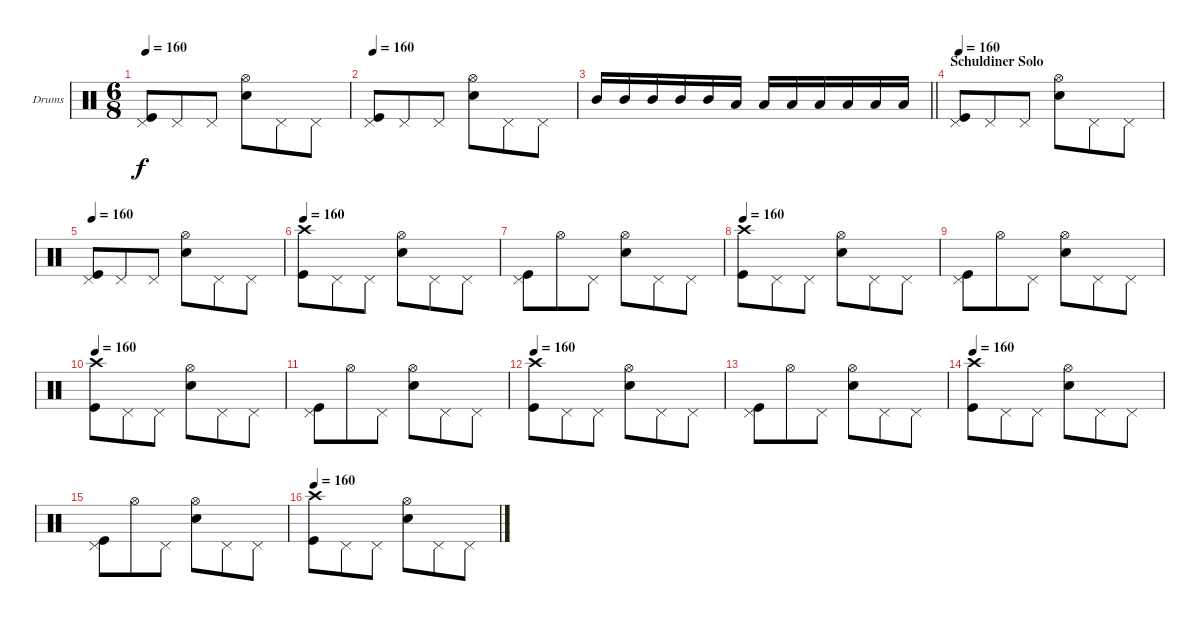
\bracketExtendMode groupsimilarinstruments
\firstSystemTrackNameOrientation horizontal
\otherSystemsTrackNameOrientation horizontal
\track ("Drumkit" "Drums") {instrument percussion}
\staff {score}
\articulation defaults
\ts (6 8)
\tempo 160
\clef neutral
\ks c
("Pedal Hi-Hat (hit)" "Kick (hit)").8{dy f} "Pedal Hi-Hat (hit)".8 "Pedal Hi-Hat (hit)".8 ("Hi-Hat (open)" "Snare (hit) 2").8 "Pedal Hi-Hat (hit)".8 "Pedal Hi-Hat (hit)".8 |
\tempo 160
("Pedal Hi-Hat (hit)" "Kick (hit)").8 "Pedal Hi-Hat (hit)".8 "Pedal Hi-Hat (hit)".8 ("Hi-Hat (open)" "Snare (hit) 2").8 "Pedal Hi-Hat (hit)".8 "Pedal Hi-Hat (hit)".8 |
\barLineRight lightlight "Mid Tom (hit)".16 "Mid Tom (hit)".16 "Mid Tom (hit)".16 "Mid Tom (hit)".16 "Mid Tom (hit)".16 "Low Tom (hit)".16 "Low Tom (hit)".16 "Low Tom (hit)".16 "Low Tom (hit)".16 "Low Tom (hit)".16 "Low Tom (hit)".16 "Low Tom (hit)".16
|
\section ("" "Schuldiner Solo")
\tempo 160
("Pedal Hi-Hat (hit)" "Kick (hit)").8 "Pedal Hi-Hat (hit)".8 "Pedal Hi-Hat (hit)".8 ("Hi-Hat (open)" "Snare (hit) 2").8 "Pedal Hi-Hat (hit)".8 "Pedal Hi-Hat (hit)".8 |
\tempo 160
("Pedal Hi-Hat (hit)" "Kick (hit)").8 "Pedal Hi-Hat (hit)".8 "Pedal Hi-Hat (hit)".8 ("Hi-Hat (open)" "Snare (hit) 2").8 "Pedal Hi-Hat (hit)".8 "Pedal Hi-Hat (hit)".8 |
\tempo 160
("Crash high (hit)" "Kick (hit)").8 "Pedal Hi-Hat (hit)".8 "Pedal Hi-Hat (hit)".8 ("Hi-Hat (open)" "Snare (hit) 2").8 "Pedal Hi-Hat (hit)".8 "Pedal Hi-Hat (hit)".8 |
("Pedal Hi-Hat (hit)" "Kick (hit)").8 "Hi-Hat (open)".8 "Pedal Hi-Hat (hit)".8 ("Hi-Hat (open)" "Snare (hit) 2").8 "Pedal Hi-Hat (hit)".8 "Pedal Hi-Hat (hit)".8 |
\tempo 160
("Crash high (hit)" "Kick (hit)").8 "Pedal Hi-Hat (hit)".8 "Pedal Hi-Hat (hit)".8 ("Hi-Hat (open)" "Snare (hit) 2").8 "Pedal Hi-Hat (hit)".8 "Pedal Hi-Hat (hit)".8 |
("Pedal Hi-Hat (hit)" "Kick (hit)").8 "Hi-Hat (open)".8 "Pedal Hi-Hat (hit)".8 ("Hi-Hat (open)" "Snare (hit) 2").8 "Pedal Hi-Hat (hit)".8 "Pedal Hi-Hat (hit)".8 |
\tempo 160
("Crash high (hit)" "Kick (hit)").8 "Pedal Hi-Hat (hit)".8 "Pedal Hi-Hat (hit)".8 ("Hi-Hat (open)" "Snare (hit) 2").8 "Pedal Hi-Hat (hit)".8 "Pedal Hi-Hat (hit)".8 |
("Pedal Hi-Hat (hit)" "Kick (hit)").8 "Hi-Hat (open)".8 "Pedal Hi-Hat (hit)".8 ("Hi-Hat (open)" "Snare (hit) 2").8 "Pedal Hi-Hat (hit)".8 "Pedal Hi-Hat (hit)".8 |
\tempo 160
("Crash high (hit)" "Kick (hit)").8 "Pedal Hi-Hat (hit)".8 "Pedal Hi-Hat (hit)".8 ("Hi-Hat (open)" "Snare (hit) 2").8 "Pedal Hi-Hat (hit)".8 "Pedal Hi-Hat (hit)".8 |
("Pedal Hi-Hat (hit)" "Kick (hit)").8 "Hi-Hat (open)".8 "Pedal Hi-Hat (hit)".8 ("Hi-Hat (open)" "Snare (hit) 2").8 "Pedal Hi-Hat (hit)".8 "Pedal Hi-Hat (hit)".8 |
\tempo 160
("Crash high (hit)" "Kick (hit)").8 "Pedal Hi-Hat (hit)".8 "Pedal Hi-Hat (hit)".8 ("Hi-Hat (open)" "Snare (hit) 2").8 "Pedal Hi-Hat (hit)".8 "Pedal Hi-Hat (hit)".8 |
("Pedal Hi-Hat (hit)" "Kick (hit)").8 "Hi-Hat (open)".8 "Pedal Hi-Hat (hit)".8 ("Hi-Hat (open)" "Snare (hit) 2").8 "Pedal Hi-Hat (hit)".8 "Pedal Hi-Hat (hit)".8 |
\tempo 160
("Crash high (hit)" "Kick (hit)").8 "Pedal Hi-Hat (hit)".8 "Pedal Hi-Hat (hit)".8 ("Hi-Hat (open)" "Snare (hit) 2").8 "Pedal Hi-Hat (hit)".8 "Pedal Hi-Hat (hit)".8
